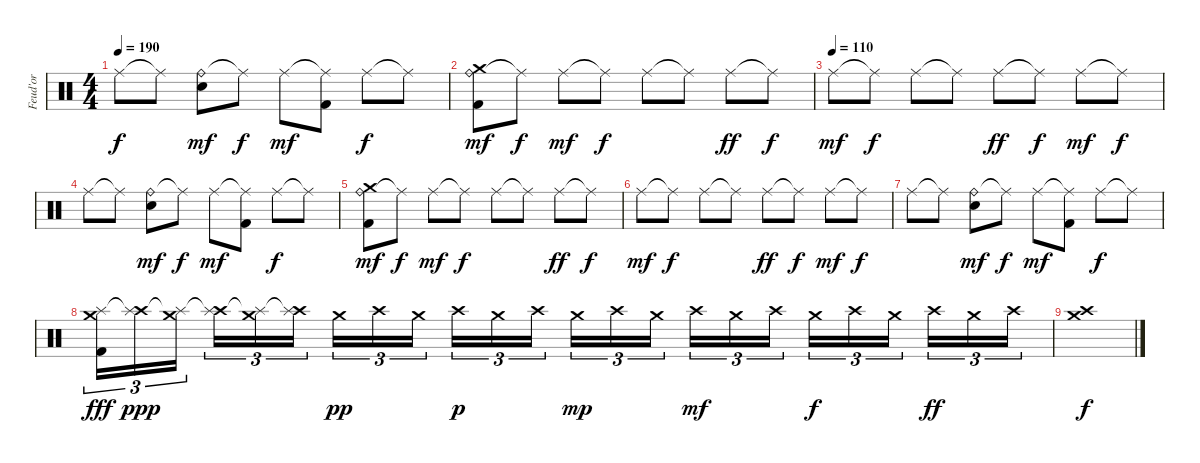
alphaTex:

\track ("Feud'or" "Feud'or") {instrument percussion}
\staff {score}
\articulation defaults
\ts (4 4)
\tempo 190
\clef neutral
\ks c "Ride (middle)".8{dy f} "Ride (middle)"{t}.8
("Ride (bell)" "Snare (hit) 2").8{dy mf} "Ride (middle)"{t}.8{dy f} "Ride (middle)".8{dy mf} ("Ride (middle)"{t} "Kick (hit) 2").8 "Ride (middle)".8{dy f} "Ride (middle)"{t}.8 |
("Ride (bell)" "Crash medium (hit)" "Kick (hit) 2").8{dy mf} "Ride (middle)"{t}.8{dy f} "Ride (middle)".8{dy mf} "Ride (middle)"{t}.8{dy f} "Ride (middle)".8 "Ride (middle)"{t}.8 "Ride (middle)".8{dy ff} "Ride (middle)"{t}.8{dy f} |
\tempo (110)
"Ride (middle)".8{dy mf} "Ride (middle)"{t}.8{dy f} "Ride (middle)".8 "Ride (middle)"{t}.8 "Ride (middle)".8{dy ff} "Ride (middle)"{t}.8{dy f} "Ride (middle)".8{dy mf} "Ride (middle)"{t}.8{dy f} |
"Ride (middle)".8 "Ride (middle)"{t}.8 ("Ride (bell)" "Snare (hit) 2").8{dy mf} "Ride (middle)"{t}.8{dy f} "Ride (middle)".8{dy mf} ("Ride (middle)"{t} "Kick (hit) 2").8 "Ride (middle)".8{dy f} "Ride (middle)"{t}.8 |
("Ride (bell)" "Crash medium (hit)" "Kick (hit) 2").8{dy mf} "Ride (middle)"{t}.8{dy f} "Ride (middle)".8{dy mf} "Ride (middle)"{t}.8{dy f} "Ride (middle)".8 "Ride (middle)"{t}.8 "Ride (middle)".8{dy ff} "Ride (middle)"{t}.8{dy f} |
"Ride (middle)".8{dy mf} "Ride (middle)"{t}.8{dy f} "Ride (middle)".8 "Ride (middle)"{t}.8 "Ride (middle)".8{dy ff} "Ride (middle)"{t}.8{dy f} "Ride (middle)".8{dy mf} "Ride (middle)"{t}.8{dy f} |
"Ride (middle)".8 "Ride (middle)"{t}.8 ("Ride (bell)" "Snare (hit) 2").8{dy mf} "Ride (middle)"{t}.8{dy f} "Ride (middle)".8{dy mf} ("Ride (middle)"{t} "Kick (hit) 2").8 "Ride (middle)".8{dy f} "Ride (middle)"{t}.8 |
("Crash medium (hit)" "Splash (hit)" "Kick (hit) 2").16{tu (3 2) dy fff} ("Crash high (hit)" "Splash (hit)"{t}).16{tu (3 2) dy ppp} ("Crash medium (hit)" "Splash (hit)"{t}).16{tu (3 2) beam splitsecondary} ("Crash high (hit)" "Splash (hit)"{t}).16{tu (3 2)} ("Crash medium (hit)" "Splash (hit)"{t}).16{tu (3 2)} ("Crash high (hit)" "Splash (hit)"{t}).16{tu (3 2)} "Crash medium (hit)".16{tu (3 2) dy pp} "Crash high (hit)".16{tu (3 2)} "Crash medium (hit)".16{tu (3 2) beam splitsecondary} "Crash high (hit)".16{tu (3 2) dy p} "Crash medium (hit)".16{tu (3 2)} "Crash high (hit)".16{tu (3 2)} "Crash medium (hit)".16{tu (3 2) dy mp} "Crash high (hit)".16{tu (3 2)} "Crash medium (hit)".16{tu (3 2) beam splitsecondary} "Crash high (hit)".16{tu (3 2) dy mf} "Crash medium (hit)".16{tu (3 2)} "Crash high (hit)".16{tu (3 2)} "Crash medium (hit)".16{tu (3 2) dy f} "Crash high (hit)".16{tu (3 2)} "Crash medium (hit)".16{tu (3 2) beam splitsecondary} "Crash high (hit)".16{tu (3 2) dy ff} "Crash medium (hit)".16{tu (3 2)} "Crash high (hit)".16{tu (3 2)} |
("Crash high (hit)" "Crash medium (hit)").1{dy f}
